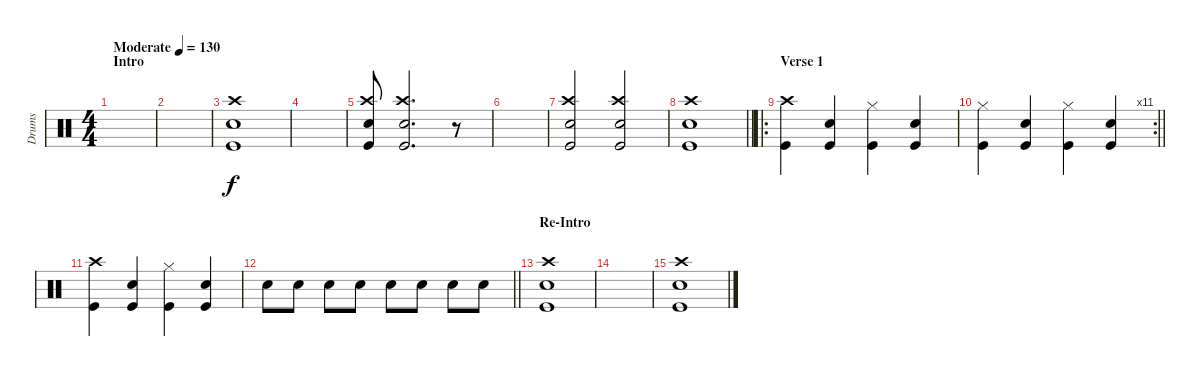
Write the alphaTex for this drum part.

\track ("Drums" "Drums") {instrument percussion}
\staff {score}
\articulation defaults
\ts (4 4)
\section ("" "Intro")
\tempo (130 "Moderate")
\clef neutral
\ks c
|
|
("Snare (hit) 2" "Crash high (hit)" "Kick (hit)").1 |
|
("Snare (hit) 2" "Crash high (hit)" "Kick (hit)").8 ("Snare (hit) 2" "Crash high (hit)" "Kick (hit)").2{d} r.8 |
|
("Snare (hit) 2" "Crash high (hit)" "Kick (hit)").2 ("Snare (hit) 2" "Crash high (hit)" "Kick (hit)").2 |
\barLineRight lightlight
("Snare (hit) 2" "Crash high (hit)" "Kick (hit)").1 |
\ro
\section ("" "Verse 1")
("Crash high (hit)" "Kick (hit)").4 ("Snare (hit) 2" "Kick (hit)").4 ("Hi-Hat (closed)" "Kick (hit)").4 ("Snare (hit) 2" "Kick (hit)").4 |
\rc 11
\barLineRight lightlight
("Hi-Hat (closed)" "Kick (hit)").4 ("Snare (hit) 2" "Kick (hit)").4 ("Hi-Hat (closed)" "Kick (hit)").4 ("Snare (hit) 2" "Kick (hit)").4 |
("Crash high (hit)" "Kick (hit)").4 ("Snare (hit) 2" "Kick (hit)").4 ("Hi-Hat (closed)" "Kick (hit)").4 ("Snare (hit) 2" "Kick (hit)").4 |
\barLineRight lightlight "Snare (hit) 2".8 "Snare (hit) 2".8 "Snare (hit) 2".8 "Snare (hit) 2".8 "Snare (hit) 2".8 "Snare (hit) 2".8 "Snare (hit) 2".8 "Snare (hit) 2".8
|
\section ("" "Re-Intro")
("Snare (hit) 2" "Crash high (hit)" "Kick (hit)").1 |
|
("Snare (hit) 2" "Crash high (hit)" "Kick (hit)").1
